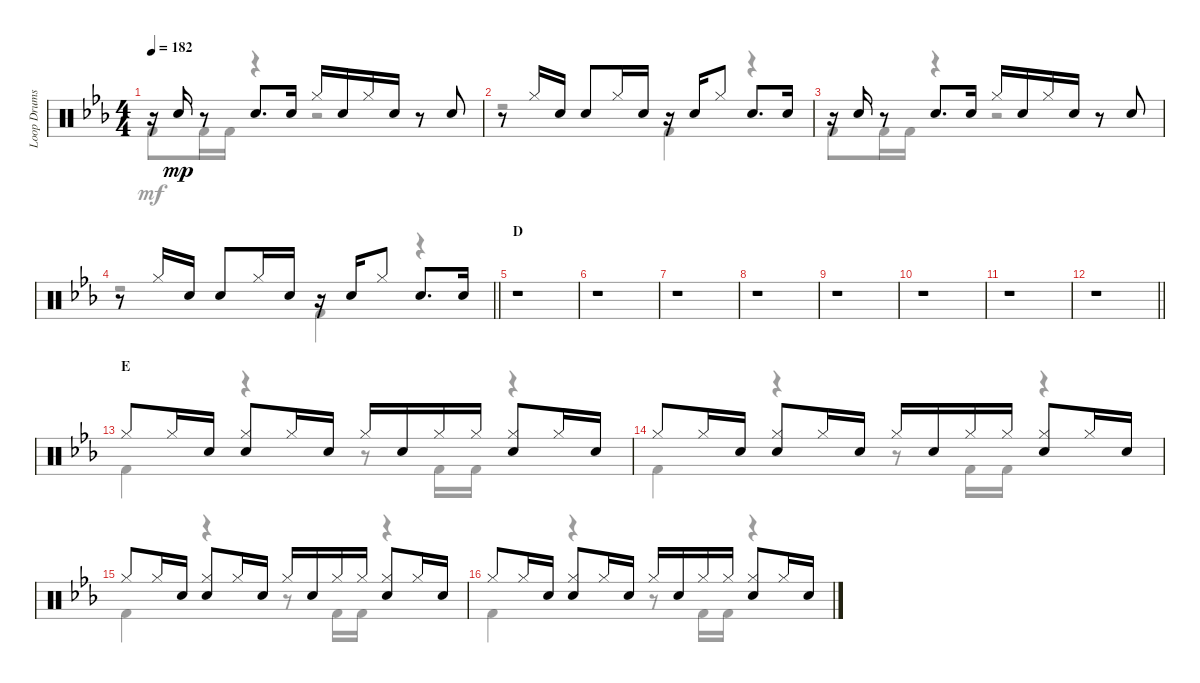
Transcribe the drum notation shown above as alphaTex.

\track ("Loop Drums" "Loop Drums") {instrument percussion}
\staff {score}
\articulation defaults
\voice
\ts (4 4)
\tempo 182
\clef neutral
\ks eb
r.16{dy mp} "Electric Snare (hit)".16 r.8 "Electric Snare (hit)".8{d} "Electric Snare (hit)".16 "Hi-Hat (closed)".16 "Electric Snare (hit)".16 "Hi-Hat (closed)".16 "Electric Snare (hit)".16 r.8 "Electric Snare (hit)".8 |
r.8 "Hi-Hat (closed)".16 "Electric Snare (hit)".16 "Electric Snare (hit)".8 "Hi-Hat (closed)".16 "Electric Snare (hit)".16 r.16 "Electric Snare (hit)".16 "Hi-Hat (closed)".8 "Electric Snare (hit)".8{d} "Electric Snare (hit)".16 |
r.16 "Electric Snare (hit)".16 r.8 "Electric Snare (hit)".8{d} "Electric Snare (hit)".16 "Hi-Hat (closed)".16 "Electric Snare (hit)".16 "Hi-Hat (closed)".16 "Electric Snare (hit)".16 r.8 "Electric Snare (hit)".8 |
\barLineRight lightlight
r.8 "Hi-Hat (closed)".16 "Electric Snare (hit)".16 "Electric Snare (hit)".8 "Hi-Hat (closed)".16 "Electric Snare (hit)".16 r.16 "Electric Snare (hit)".16 "Hi-Hat (closed)".8 "Electric Snare (hit)".8{d} "Electric Snare (hit)".16 |
\section ("" "D")
r.1 |
r.1 |
r.1 |
r.1 |
r.1 |
r.1 |
r.1 |
\barLineRight lightlight
r.1 |
\section ("" "E")
"Hi-Hat (closed)".8 "Hi-Hat (closed)".16 "Electric Snare (hit)".16 ("Hi-Hat (closed)" "Electric Snare (hit)").8 "Hi-Hat (closed)".16 "Electric Snare (hit)".16 "Hi-Hat (closed)".16 "Electric Snare (hit)".16 "Hi-Hat (closed)".16 "Hi-Hat (closed)".16 ("Hi-Hat (closed)" "Electric Snare (hit)").8 "Hi-Hat (closed)".16 "Electric Snare (hit)".16 |
"Hi-Hat (closed)".8 "Hi-Hat (closed)".16 "Electric Snare (hit)".16 ("Hi-Hat (closed)" "Electric Snare (hit)").8 "Hi-Hat (closed)".16 "Electric Snare (hit)".16 "Hi-Hat (closed)".16 "Electric Snare (hit)".16 "Hi-Hat (closed)".16 "Hi-Hat (closed)".16 ("Hi-Hat (closed)" "Electric Snare (hit)").8 "Hi-Hat (closed)".16 "Electric Snare (hit)".16 |
"Hi-Hat (closed)".8 "Hi-Hat (closed)".16 "Electric Snare (hit)".16 ("Hi-Hat (closed)" "Electric Snare (hit)").8 "Hi-Hat (closed)".16 "Electric Snare (hit)".16 "Hi-Hat (closed)".16 "Electric Snare (hit)".16 "Hi-Hat (closed)".16 "Hi-Hat (closed)".16 ("Hi-Hat (closed)" "Electric Snare (hit)").8 "Hi-Hat (closed)".16 "Electric Snare (hit)".16 |
"Hi-Hat (closed)".8 "Hi-Hat (closed)".16 "Electric Snare (hit)".16 ("Hi-Hat (closed)" "Electric Snare (hit)").8 "Hi-Hat (closed)".16 "Electric Snare (hit)".16 "Hi-Hat (closed)".16 "Electric Snare (hit)".16 "Hi-Hat (closed)".16 "Hi-Hat (closed)".16 ("Hi-Hat (closed)" "Electric Snare (hit)").8 "Hi-Hat (closed)".16 "Electric Snare (hit)".16
\voice
\clef neutral
\ottava regular
\simile none
\ks eb "Kick (hit) 2".8{dy mf} "Kick (hit) 2".16 "Kick (hit) 2".16
r.4 r.2 |
r.2 "Kick (hit) 2".4 r.4 |
"Kick (hit) 2".8 "Kick (hit) 2".16 "Kick (hit) 2".16 r.4 r.2 |
\barLineRight lightlight
r.2 "Kick (hit) 2".4 r.4 |
r.1 |
r.1 |
r.1 |
r.1 |
r.1 |
r.1 |
r.1 |
\barLineRight lightlight
r.1 |
"Kick (hit) 2".4 r.4 r.8 "Kick (hit) 2".16 "Kick (hit) 2".16 r.4 |
"Kick (hit) 2".4 r.4 r.8 "Kick (hit) 2".16 "Kick (hit) 2".16 r.4 |
"Kick (hit) 2".4 r.4 r.8 "Kick (hit) 2".16 "Kick (hit) 2".16 r.4 |
"Kick (hit) 2".4 r.4 r.8 "Kick (hit) 2".16 "Kick (hit) 2".16 r.4
